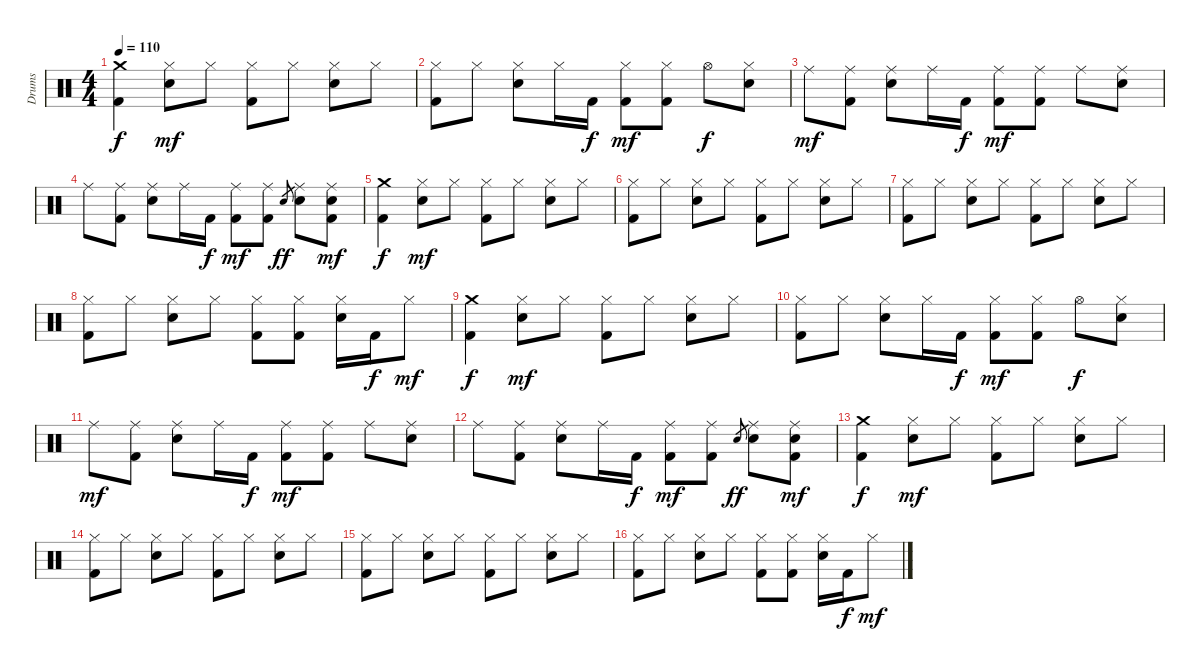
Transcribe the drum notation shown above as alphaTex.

\track ("Drums" "Drums") {instrument percussion}
\staff {score}
\articulation defaults
\ts (4 4)
\tempo 110
\clef neutral
\ks c
("Crash medium (hit)" "Kick (hit) 2").4{dy f} ("Hi-Hat (closed)" "Electric Snare (hit)").8{dy mf} "Hi-Hat (closed)".8 ("Hi-Hat (closed)" "Kick (hit) 2").8 "Hi-Hat (closed)".8 ("Hi-Hat (closed)" "Electric Snare (hit)").8 "Hi-Hat (closed)".8 |
("Hi-Hat (closed)" "Kick (hit) 2").8 "Hi-Hat (closed)".8 ("Hi-Hat (closed)" "Electric Snare (hit)").8 "Hi-Hat (closed)".16 "Kick (hit) 2".16{dy f} ("Hi-Hat (closed)" "Kick (hit) 2").8{dy mf} ("Hi-Hat (closed)" "Kick (hit) 2").8 "Hi-Hat (open)".8{dy f} ("Hi-Hat (closed)" "Electric Snare (hit)").8 |
"Ride (middle)".8{dy mf} ("Ride (middle)" "Kick (hit) 2").8 ("Ride (middle)" "Electric Snare (hit)").8 "Ride (middle)".16 "Kick (hit) 2".16{dy f} ("Ride (middle)" "Kick (hit) 2").8{dy mf} ("Ride (middle)" "Kick (hit) 2").8 "Ride (middle)".8 ("Ride (middle)" "Electric Snare (hit)").8 |
"Ride (middle)".8 ("Ride (middle)" "Kick (hit) 2").8 ("Ride (middle)" "Electric Snare (hit)").8 "Ride (middle)".16 "Kick (hit) 2".16{dy f} ("Ride (middle)" "Kick (hit) 2").8{dy mf} ("Ride (middle)" "Kick (hit) 2").8 "Electric Snare (hit)".8{gr dy ff} ("Ride (middle)" "Electric Snare (hit)").8 ("Ride (middle)" "Electric Snare (hit)" "Kick (hit) 2").8{dy mf} |
("Crash medium (hit)" "Kick (hit) 2").4{dy f} ("Hi-Hat (closed)" "Electric Snare (hit)").8{dy mf} "Hi-Hat (closed)".8 ("Hi-Hat (closed)" "Kick (hit) 2").8 "Hi-Hat (closed)".8 ("Hi-Hat (closed)" "Electric Snare (hit)").8 "Hi-Hat (closed)".8 |
("Hi-Hat (closed)" "Kick (hit) 2").8 "Hi-Hat (closed)".8 ("Hi-Hat (closed)" "Electric Snare (hit)").8 "Hi-Hat (closed)".8 ("Hi-Hat (closed)" "Kick (hit) 2").8 "Hi-Hat (closed)".8 ("Hi-Hat (closed)" "Electric Snare (hit)").8 "Hi-Hat (closed)".8 |
("Hi-Hat (closed)" "Kick (hit) 2").8 "Hi-Hat (closed)".8 ("Hi-Hat (closed)" "Electric Snare (hit)").8 "Hi-Hat (closed)".8 ("Hi-Hat (closed)" "Kick (hit) 2").8 "Hi-Hat (closed)".8 ("Hi-Hat (closed)" "Electric Snare (hit)").8 "Hi-Hat (closed)".8 |
("Hi-Hat (closed)" "Kick (hit) 2").8 "Hi-Hat (closed)".8 ("Hi-Hat (closed)" "Electric Snare (hit)").8 "Hi-Hat (closed)".8 ("Hi-Hat (closed)" "Kick (hit) 2").8 ("Hi-Hat (closed)" "Kick (hit) 2").8 ("Hi-Hat (closed)" "Electric Snare (hit)").16 "Kick (hit) 2".16{dy f} "Hi-Hat (closed)".8{dy mf} |
("Crash medium (hit)" "Kick (hit) 2").4{dy f volume 9} ("Hi-Hat (closed)" "Electric Snare (hit)").8{dy mf} "Hi-Hat (closed)".8 ("Hi-Hat (closed)" "Kick (hit) 2").8 "Hi-Hat (closed)".8 ("Hi-Hat (closed)" "Electric Snare (hit)").8 "Hi-Hat (closed)".8 |
("Hi-Hat (closed)" "Kick (hit) 2").8 "Hi-Hat (closed)".8 ("Hi-Hat (closed)" "Electric Snare (hit)").8 "Hi-Hat (closed)".16 "Kick (hit) 2".16{dy f} ("Hi-Hat (closed)" "Kick (hit) 2").8{dy mf} ("Hi-Hat (closed)" "Kick (hit) 2").8 "Hi-Hat (open)".8{dy f} ("Hi-Hat (closed)" "Electric Snare (hit)").8 |
"Ride (middle)".8{dy mf} ("Ride (middle)" "Kick (hit) 2").8 ("Ride (middle)" "Electric Snare (hit)").8 "Ride (middle)".16 "Kick (hit) 2".16{dy f} ("Ride (middle)" "Kick (hit) 2").8{dy mf} ("Ride (middle)" "Kick (hit) 2").8 "Ride (middle)".8 ("Ride (middle)" "Electric Snare (hit)").8 |
"Ride (middle)".8 ("Ride (middle)" "Kick (hit) 2").8 ("Ride (middle)" "Electric Snare (hit)").8 "Ride (middle)".16 "Kick (hit) 2".16{dy f} ("Ride (middle)" "Kick (hit) 2").8{dy mf} ("Ride (middle)" "Kick (hit) 2").8 "Electric Snare (hit)".8{gr dy ff} ("Ride (middle)" "Electric Snare (hit)").8 ("Ride (middle)" "Electric Snare (hit)" "Kick (hit) 2").8{dy mf} |
("Crash medium (hit)" "Kick (hit) 2").4{dy f volume 7} ("Hi-Hat (closed)" "Electric Snare (hit)").8{dy mf} "Hi-Hat (closed)".8 ("Hi-Hat (closed)" "Kick (hit) 2").8 "Hi-Hat (closed)".8 ("Hi-Hat (closed)" "Electric Snare (hit)").8 "Hi-Hat (closed)".8 |
("Hi-Hat (closed)" "Kick (hit) 2").8 "Hi-Hat (closed)".8 ("Hi-Hat (closed)" "Electric Snare (hit)").8 "Hi-Hat (closed)".8 ("Hi-Hat (closed)" "Kick (hit) 2").8 "Hi-Hat (closed)".8 ("Hi-Hat (closed)" "Electric Snare (hit)").8 "Hi-Hat (closed)".8 |
("Hi-Hat (closed)" "Kick (hit) 2").8 "Hi-Hat (closed)".8 ("Hi-Hat (closed)" "Electric Snare (hit)").8 "Hi-Hat (closed)".8 ("Hi-Hat (closed)" "Kick (hit) 2").8 "Hi-Hat (closed)".8 ("Hi-Hat (closed)" "Electric Snare (hit)").8 "Hi-Hat (closed)".8 |
("Hi-Hat (closed)" "Kick (hit) 2").8 "Hi-Hat (closed)".8 ("Hi-Hat (closed)" "Electric Snare (hit)").8 "Hi-Hat (closed)".8 ("Hi-Hat (closed)" "Kick (hit) 2").8 ("Hi-Hat (closed)" "Kick (hit) 2").8 ("Hi-Hat (closed)" "Electric Snare (hit)").16 "Kick (hit) 2".16{dy f} "Hi-Hat (closed)".8{dy mf}
